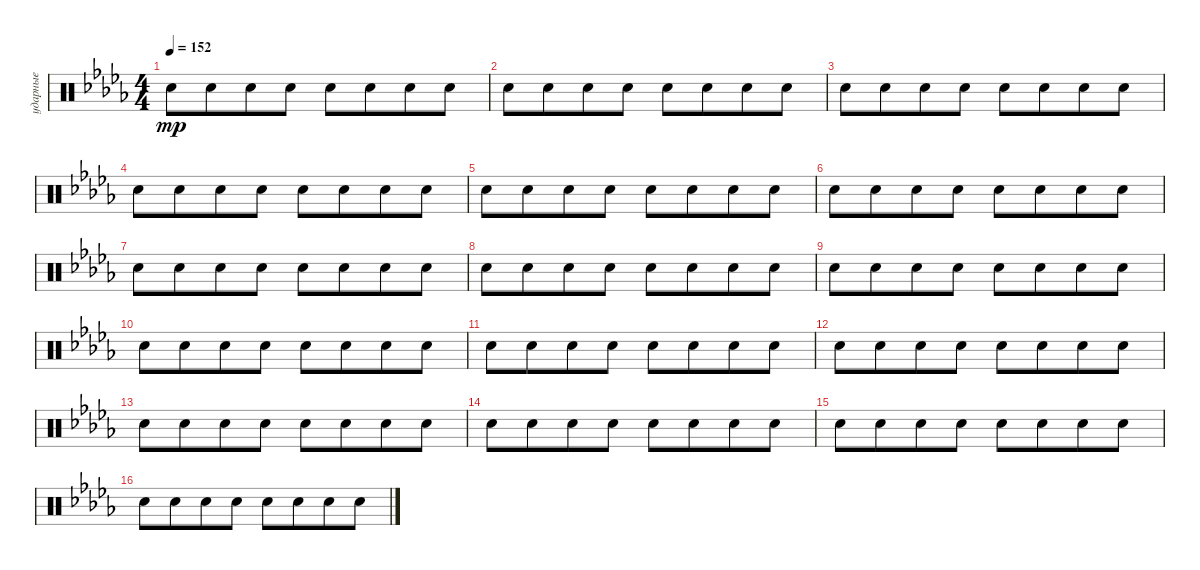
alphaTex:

\track ("ударные" "ударные") {instrument percussion}
\staff {score}
\articulation defaults
\ts (4 4)
\tempo 152
\clef neutral
\ks bbminor "Snare (hit) 2".8{dy mp} "Snare (hit) 2".8{beam merge} "Snare (hit) 2".8 "Snare (hit) 2".8 "Snare (hit) 2".8 "Snare (hit) 2".8{beam merge} "Snare (hit) 2".8 "Snare (hit) 2".8
|
"Snare (hit) 2".8 "Snare (hit) 2".8{beam merge} "Snare (hit) 2".8 "Snare (hit) 2".8 "Snare (hit) 2".8 "Snare (hit) 2".8{beam merge} "Snare (hit) 2".8 "Snare (hit) 2".8 |
"Snare (hit) 2".8 "Snare (hit) 2".8{beam merge} "Snare (hit) 2".8 "Snare (hit) 2".8 "Snare (hit) 2".8 "Snare (hit) 2".8{beam merge} "Snare (hit) 2".8 "Snare (hit) 2".8 |
"Snare (hit) 2".8 "Snare (hit) 2".8{beam merge} "Snare (hit) 2".8 "Snare (hit) 2".8 "Snare (hit) 2".8 "Snare (hit) 2".8{beam merge} "Snare (hit) 2".8 "Snare (hit) 2".8 |
"Snare (hit) 2".8 "Snare (hit) 2".8{beam merge} "Snare (hit) 2".8 "Snare (hit) 2".8 "Snare (hit) 2".8 "Snare (hit) 2".8{beam merge} "Snare (hit) 2".8 "Snare (hit) 2".8 |
"Snare (hit) 2".8 "Snare (hit) 2".8{beam merge} "Snare (hit) 2".8 "Snare (hit) 2".8 "Snare (hit) 2".8 "Snare (hit) 2".8{beam merge} "Snare (hit) 2".8 "Snare (hit) 2".8 |
"Snare (hit) 2".8 "Snare (hit) 2".8{beam merge} "Snare (hit) 2".8 "Snare (hit) 2".8 "Snare (hit) 2".8 "Snare (hit) 2".8{beam merge} "Snare (hit) 2".8 "Snare (hit) 2".8 |
"Snare (hit) 2".8 "Snare (hit) 2".8{beam merge} "Snare (hit) 2".8 "Snare (hit) 2".8 "Snare (hit) 2".8 "Snare (hit) 2".8{beam merge} "Snare (hit) 2".8 "Snare (hit) 2".8 |
"Snare (hit) 2".8 "Snare (hit) 2".8{beam merge} "Snare (hit) 2".8 "Snare (hit) 2".8 "Snare (hit) 2".8 "Snare (hit) 2".8{beam merge} "Snare (hit) 2".8 "Snare (hit) 2".8 |
"Snare (hit) 2".8 "Snare (hit) 2".8{beam merge} "Snare (hit) 2".8 "Snare (hit) 2".8 "Snare (hit) 2".8 "Snare (hit) 2".8{beam merge} "Snare (hit) 2".8 "Snare (hit) 2".8 |
"Snare (hit) 2".8 "Snare (hit) 2".8{beam merge} "Snare (hit) 2".8 "Snare (hit) 2".8 "Snare (hit) 2".8 "Snare (hit) 2".8{beam merge} "Snare (hit) 2".8 "Snare (hit) 2".8 |
"Snare (hit) 2".8 "Snare (hit) 2".8{beam merge} "Snare (hit) 2".8 "Snare (hit) 2".8 "Snare (hit) 2".8 "Snare (hit) 2".8{beam merge} "Snare (hit) 2".8 "Snare (hit) 2".8 |
"Snare (hit) 2".8 "Snare (hit) 2".8{beam merge} "Snare (hit) 2".8 "Snare (hit) 2".8 "Snare (hit) 2".8 "Snare (hit) 2".8{beam merge} "Snare (hit) 2".8 "Snare (hit) 2".8 |
"Snare (hit) 2".8 "Snare (hit) 2".8{beam merge} "Snare (hit) 2".8 "Snare (hit) 2".8 "Snare (hit) 2".8 "Snare (hit) 2".8{beam merge} "Snare (hit) 2".8 "Snare (hit) 2".8 |
"Snare (hit) 2".8 "Snare (hit) 2".8{beam merge} "Snare (hit) 2".8 "Snare (hit) 2".8 "Snare (hit) 2".8 "Snare (hit) 2".8{beam merge} "Snare (hit) 2".8 "Snare (hit) 2".8 |
"Snare (hit) 2".8 "Snare (hit) 2".8{beam merge} "Snare (hit) 2".8 "Snare (hit) 2".8 "Snare (hit) 2".8 "Snare (hit) 2".8{beam merge} "Snare (hit) 2".8 "Snare (hit) 2".8
